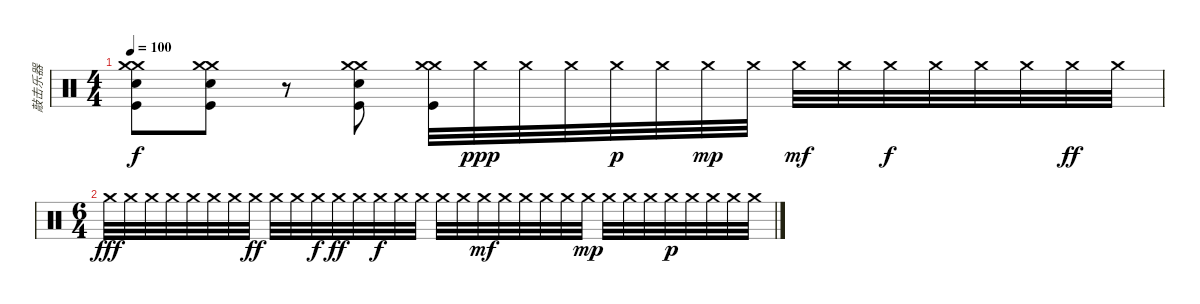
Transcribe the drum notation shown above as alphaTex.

\track ("敲击乐器" "敲击乐器") {instrument percussion}
\staff {score}
\articulation defaults
\ts (4 4)
\tempo 100
\clef neutral
\ks c
("Crash medium (hit)" "Crash medium (hit)" "Snare (hit) 2" "Kick (hit)").8{dy f} ("Crash medium (hit)" "Crash medium (hit)" "Snare (hit) 2" "Kick (hit)").8 r.8 ("Crash medium (hit)" "Crash medium (hit)" "Snare (hit) 2" "Kick (hit)").8 ("Crash medium (hit)" "Crash medium (hit)" "Kick (hit)").32 "Crash medium (hit)".32{dy ppp} "Crash medium (hit)".32 "Crash medium (hit)".32 "Crash medium (hit)".32{dy p} "Crash medium (hit)".32 "Crash medium (hit)".32{dy mp} "Crash medium (hit)".32 "Crash medium (hit)".32{dy mf} "Crash medium (hit)".32 "Crash medium (hit)".32{dy f} "Crash medium (hit)".32 "Crash medium (hit)".32 "Crash medium (hit)".32 "Crash medium (hit)".32{dy ff} "Crash medium (hit)".32 |
\ts (6 4)
"Crash medium (hit)".32{dy fff} "Crash medium (hit)".32 "Crash medium (hit)".32 "Crash medium (hit)".32 "Crash medium (hit)".32 "Crash medium (hit)".32 "Crash medium (hit)".32 "Crash medium (hit)".32{dy ff} "Crash medium (hit)".32 "Crash medium (hit)".32 "Crash medium (hit)".32{dy f} "Crash medium (hit)".32{dy ff} "Crash medium (hit)".32 "Crash medium (hit)".32{dy f} "Crash medium (hit)".32 "Crash medium (hit)".32 "Crash medium (hit)".32 "Crash medium (hit)".32 "Crash medium (hit)".32{dy mf} "Crash medium (hit)".32 "Crash medium (hit)".32 "Crash medium (hit)".32 "Crash medium (hit)".32 "Crash medium (hit)".32{dy mp} "Crash medium (hit)".32 "Crash medium (hit)".32 "Crash medium (hit)".32 "Crash medium (hit)".32{dy p} "Crash medium (hit)".32 "Crash medium (hit)".32 "Crash medium (hit)".32 "Crash medium (hit)".32
